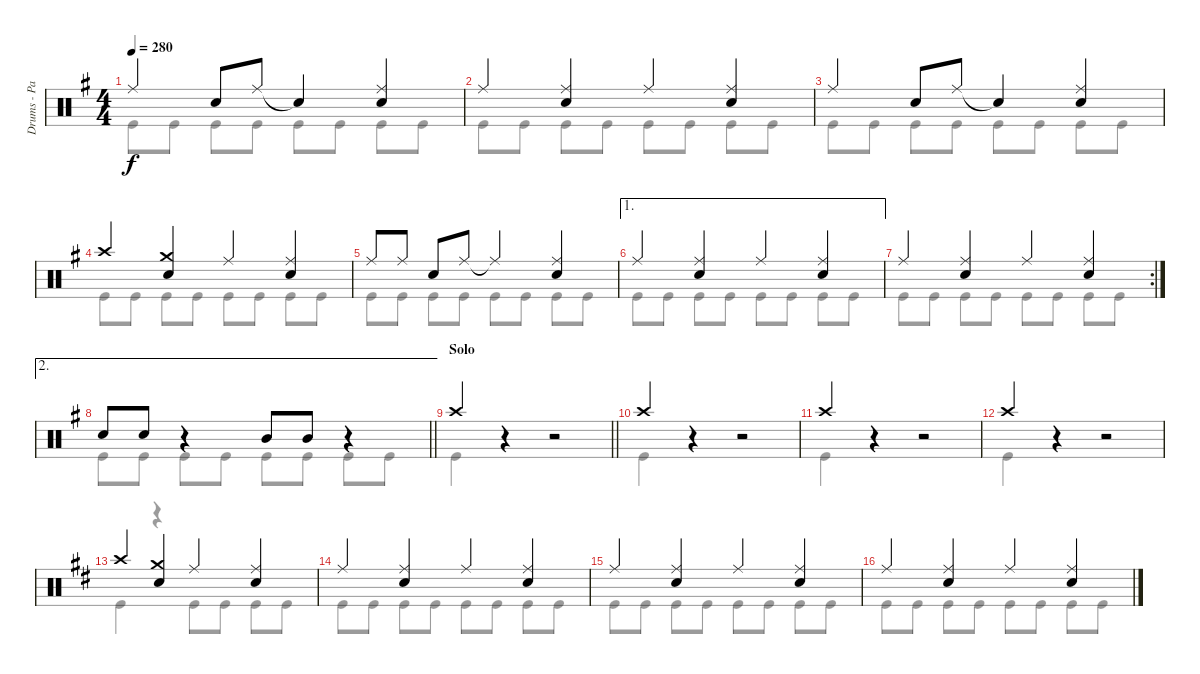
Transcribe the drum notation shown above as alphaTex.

\track ("Drums - Patrick Johansson" "Drums - Pa") {instrument percussion}
\staff {score}
\articulation defaults
\voice
\ts (4 4)
\tempo 280
\clef neutral
\ks eminor "Ride (middle)".4{dy f} "Snare (hit) 2".8 "Ride (middle)".8 "Snare (hit)"{t}.4
("Ride (middle)" "Snare (hit) 2").4 |
"Ride (middle)".4 ("Ride (middle)" "Snare (hit) 2").4 "Ride (middle)".4 ("Ride (middle)" "Snare (hit) 2").4 |
"Ride (middle)".4 "Snare (hit) 2".8 "Ride (middle)".8 "Snare (hit)"{t}.4 ("Ride (middle)" "Snare (hit) 2").4 |
"Crash high (hit)".4 ("Crash medium (hit)" "Snare (hit) 2").4 "Ride (middle)".4 ("Ride (middle)" "Snare (hit) 2").4 |
"Ride (middle)".8 "Ride (middle)".8 "Snare (hit) 2".8 "Ride (middle)".8 "Ride (middle)"{t}.4 ("Ride (middle)" "Snare (hit) 2").4 |
\ae 1 "Ride (middle)".4
("Ride (middle)" "Snare (hit) 2").4 "Ride (middle)".4 ("Ride (middle)" "Snare (hit) 2").4 |
\rc 2 "Ride (middle)".4
("Ride (middle)" "Snare (hit) 2").4 "Ride (middle)".4 ("Ride (middle)" "Snare (hit) 2").4 |
\ae 2
\barLineRight lightlight "Snare (hit) 2".8 "Snare (hit) 2".8
r.4 "Mid Tom (hit)".8 "Mid Tom (hit)".8 r.4 |
\section ("" "Solo")
\barLineRight lightlight "Crash high (hit)".4
r.4 r.2 |
"Crash high (hit)".4 r.4 r.2 |
"Crash high (hit)".4 r.4 r.2 |
"Crash high (hit)".4 r.4 r.2 |
\ks bminor "Crash high (hit)".4
("Crash medium (hit)" "Snare (hit) 2").4 "Ride (middle)".4 ("Ride (middle)" "Snare (hit) 2").4 |
"Ride (middle)".4 ("Ride (middle)" "Snare (hit) 2").4 "Ride (middle)".4 ("Ride (middle)" "Snare (hit) 2").4 |
"Ride (middle)".4 ("Ride (middle)" "Snare (hit) 2").4 "Ride (middle)".4 ("Ride (middle)" "Snare (hit) 2").4 |
"Ride (middle)".4 ("Ride (middle)" "Snare (hit) 2").4 "Ride (middle)".4 ("Ride (middle)" "Snare (hit) 2").4
\voice
\clef neutral
\ottava regular
\simile none
\ks eminor "Kick (hit)".8{dy f} "Kick (hit)".8 "Kick (hit)".8 "Kick (hit)".8 "Kick (hit)".8 "Kick (hit)".8 "Kick (hit)".8 "Kick (hit)".8
|
"Kick (hit)".8 "Kick (hit)".8 "Kick (hit)".8 "Kick (hit)".8 "Kick (hit)".8 "Kick (hit)".8 "Kick (hit)".8 "Kick (hit)".8 |
"Kick (hit)".8 "Kick (hit)".8 "Kick (hit)".8 "Kick (hit)".8 "Kick (hit)".8 "Kick (hit)".8 "Kick (hit)".8 "Kick (hit)".8 |
"Kick (hit)".8 "Kick (hit)".8 "Kick (hit)".8 "Kick (hit)".8 "Kick (hit)".8 "Kick (hit)".8 "Kick (hit)".8 "Kick (hit)".8 |
"Kick (hit)".8 "Kick (hit)".8 "Kick (hit)".8 "Kick (hit)".8 "Kick (hit)".8 "Kick (hit)".8 "Kick (hit)".8 "Kick (hit)".8 |
"Kick (hit)".8 "Kick (hit)".8 "Kick (hit)".8 "Kick (hit)".8 "Kick (hit)".8 "Kick (hit)".8 "Kick (hit)".8 "Kick (hit)".8 |
"Kick (hit)".8 "Kick (hit)".8 "Kick (hit)".8 "Kick (hit)".8 "Kick (hit)".8 "Kick (hit)".8 "Kick (hit)".8 "Kick (hit)".8 |
\barLineRight lightlight "Kick (hit)".8 "Kick (hit)".8 "Kick (hit)".8 "Kick (hit)".8 "Kick (hit)".8 "Kick (hit)".8 "Kick (hit)".8 "Kick (hit)".8
|
\barLineRight lightlight "Kick (hit)".4
r.4 r.2 |
"Kick (hit)".4 r.4 r.2 |
"Kick (hit)".4 r.4 r.2 |
"Kick (hit)".4 r.4 r.2 |
\ks bminor "Kick (hit)".4
r.4 "Kick (hit)".8 "Kick (hit)".8 "Kick (hit)".8 "Kick (hit)".8 |
"Kick (hit)".8 "Kick (hit)".8 "Kick (hit)".8 "Kick (hit)".8 "Kick (hit)".8 "Kick (hit)".8 "Kick (hit)".8 "Kick (hit)".8 |
"Kick (hit)".8 "Kick (hit)".8 "Kick (hit)".8 "Kick (hit)".8 "Kick (hit)".8 "Kick (hit)".8 "Kick (hit)".8 "Kick (hit)".8 |
"Kick (hit)".8 "Kick (hit)".8 "Kick (hit)".8 "Kick (hit)".8 "Kick (hit)".8 "Kick (hit)".8 "Kick (hit)".8 "Kick (hit)".8
